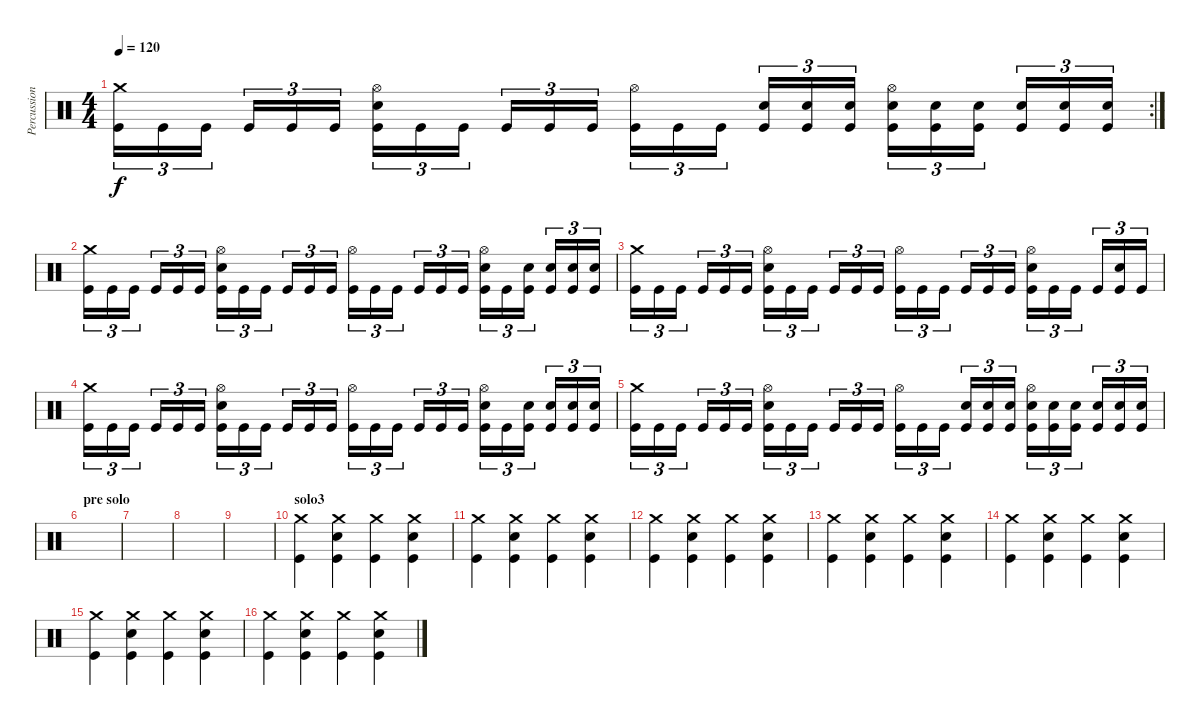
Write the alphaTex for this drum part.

\track ("Percussion" "Percussion") {instrument percussion}
\staff {score}
\articulation defaults
\rc 2
\ts (4 4)
\tempo 120
\clef neutral
\ks c
("Crash medium (hit)" "Kick (hit)").16{tu (3 2) dy f} "Kick (hit)".16{tu (3 2)} "Kick (hit)".16{tu (3 2)} "Kick (hit)".16{tu (3 2)} "Kick (hit)".16{tu (3 2)} "Kick (hit)".16{tu (3 2)} ("Snare (hit) 2" "Hi-Hat (open)" "Kick (hit)").16{tu (3 2)} "Kick (hit)".16{tu (3 2)} "Kick (hit)".16{tu (3 2)} "Kick (hit)".16{tu (3 2)} "Kick (hit)".16{tu (3 2)} "Kick (hit)".16{tu (3 2)} ("Hi-Hat (open)" "Kick (hit)").16{tu (3 2)} "Kick (hit)".16{tu (3 2)} "Kick (hit)".16{tu (3 2)} ("Snare (hit) 2" "Kick (hit)").16{tu (3 2)} ("Snare (hit) 2" "Kick (hit)").16{tu (3 2)} ("Snare (hit) 2" "Kick (hit)").16{tu (3 2)} ("Snare (hit) 2" "Hi-Hat (open)" "Kick (hit)").16{tu (3 2)} ("Snare (hit) 2" "Kick (hit)").16{tu (3 2)} ("Snare (hit) 2" "Kick (hit)").16{tu (3 2)} ("Snare (hit) 2" "Kick (hit)").16{tu (3 2)} ("Snare (hit) 2" "Kick (hit)").16{tu (3 2)} ("Snare (hit) 2" "Kick (hit)").16{tu (3 2)} |
("Crash medium (hit)" "Kick (hit)").16{tu (3 2)} "Kick (hit)".16{tu (3 2)} "Kick (hit)".16{tu (3 2)} "Kick (hit)".16{tu (3 2)} "Kick (hit)".16{tu (3 2)} "Kick (hit)".16{tu (3 2)} ("Snare (hit) 2" "Hi-Hat (open)" "Kick (hit)").16{tu (3 2)} "Kick (hit)".16{tu (3 2)} "Kick (hit)".16{tu (3 2)} "Kick (hit)".16{tu (3 2)} "Kick (hit)".16{tu (3 2)} "Kick (hit)".16{tu (3 2)} ("Hi-Hat (open)" "Kick (hit)").16{tu (3 2)} "Kick (hit)".16{tu (3 2)} "Kick (hit)".16{tu (3 2)} "Kick (hit)".16{tu (3 2)} "Kick (hit)".16{tu (3 2)} "Kick (hit)".16{tu (3 2)} ("Snare (hit) 2" "Hi-Hat (open)" "Kick (hit)").16{tu (3 2)} "Kick (hit)".16{tu (3 2)} ("Snare (hit) 2" "Kick (hit)").16{tu (3 2)} ("Snare (hit) 2" "Kick (hit)").16{tu (3 2)} ("Snare (hit) 2" "Kick (hit)").16{tu (3 2)} ("Snare (hit) 2" "Kick (hit)").16{tu (3 2)} |
("Crash medium (hit)" "Kick (hit)").16{tu (3 2)} "Kick (hit)".16{tu (3 2)} "Kick (hit)".16{tu (3 2)} "Kick (hit)".16{tu (3 2)} "Kick (hit)".16{tu (3 2)} "Kick (hit)".16{tu (3 2)} ("Snare (hit) 2" "Hi-Hat (open)" "Kick (hit)").16{tu (3 2)} "Kick (hit)".16{tu (3 2)} "Kick (hit)".16{tu (3 2)} "Kick (hit)".16{tu (3 2)} "Kick (hit)".16{tu (3 2)} "Kick (hit)".16{tu (3 2)} ("Hi-Hat (open)" "Kick (hit)").16{tu (3 2)} "Kick (hit)".16{tu (3 2)} "Kick (hit)".16{tu (3 2)} "Kick (hit)".16{tu (3 2)} "Kick (hit)".16{tu (3 2)} "Kick (hit)".16{tu (3 2)} ("Snare (hit) 2" "Hi-Hat (open)" "Kick (hit)").16{tu (3 2)} "Kick (hit)".16{tu (3 2)} "Kick (hit)".16{tu (3 2)} "Kick (hit)".16{tu (3 2)} ("Snare (hit) 2" "Kick (hit)").16{tu (3 2)} "Kick (hit)".16{tu (3 2)} |
("Crash medium (hit)" "Kick (hit)").16{tu (3 2)} "Kick (hit)".16{tu (3 2)} "Kick (hit)".16{tu (3 2)} "Kick (hit)".16{tu (3 2)} "Kick (hit)".16{tu (3 2)} "Kick (hit)".16{tu (3 2)} ("Snare (hit) 2" "Hi-Hat (open)" "Kick (hit)").16{tu (3 2)} "Kick (hit)".16{tu (3 2)} "Kick (hit)".16{tu (3 2)} "Kick (hit)".16{tu (3 2)} "Kick (hit)".16{tu (3 2)} "Kick (hit)".16{tu (3 2)} ("Hi-Hat (open)" "Kick (hit)").16{tu (3 2)} "Kick (hit)".16{tu (3 2)} "Kick (hit)".16{tu (3 2)} "Kick (hit)".16{tu (3 2)} "Kick (hit)".16{tu (3 2)} "Kick (hit)".16{tu (3 2)} ("Snare (hit) 2" "Hi-Hat (open)" "Kick (hit)").16{tu (3 2)} "Kick (hit)".16{tu (3 2)} ("Snare (hit) 2" "Kick (hit)").16{tu (3 2)} ("Snare (hit) 2" "Kick (hit)").16{tu (3 2)} ("Snare (hit) 2" "Kick (hit)").16{tu (3 2)} ("Snare (hit) 2" "Kick (hit)").16{tu (3 2)} |
("Crash medium (hit)" "Kick (hit)").16{tu (3 2)} "Kick (hit)".16{tu (3 2)} "Kick (hit)".16{tu (3 2)} "Kick (hit)".16{tu (3 2)} "Kick (hit)".16{tu (3 2)} "Kick (hit)".16{tu (3 2)} ("Snare (hit) 2" "Hi-Hat (open)" "Kick (hit)").16{tu (3 2)} "Kick (hit)".16{tu (3 2)} "Kick (hit)".16{tu (3 2)} "Kick (hit)".16{tu (3 2)} "Kick (hit)".16{tu (3 2)} "Kick (hit)".16{tu (3 2)} ("Hi-Hat (open)" "Kick (hit)").16{tu (3 2)} "Kick (hit)".16{tu (3 2)} "Kick (hit)".16{tu (3 2)} ("Snare (hit) 2" "Kick (hit)").16{tu (3 2)} ("Snare (hit) 2" "Kick (hit)").16{tu (3 2)} ("Snare (hit) 2" "Kick (hit)").16{tu (3 2)} ("Snare (hit) 2" "Hi-Hat (open)" "Kick (hit)").16{tu (3 2)} ("Snare (hit) 2" "Kick (hit)").16{tu (3 2)} ("Snare (hit) 2" "Kick (hit)").16{tu (3 2)} ("Snare (hit) 2" "Kick (hit)").16{tu (3 2)} ("Snare (hit) 2" "Kick (hit)").16{tu (3 2)} ("Snare (hit) 2" "Kick (hit)").16{tu (3 2)} |
\section ("" "pre solo")
|
|
|
|
\section ("" "solo3")
("Crash medium (hit)" "Kick (hit)").4 ("Crash medium (hit)" "Snare (hit) 2" "Kick (hit)").4 ("Crash medium (hit)" "Kick (hit)").4 ("Crash medium (hit)" "Snare (hit) 2" "Kick (hit)").4 |
("Crash medium (hit)" "Kick (hit)").4 ("Crash medium (hit)" "Snare (hit) 2" "Kick (hit)").4 ("Crash medium (hit)" "Kick (hit)").4 ("Crash medium (hit)" "Snare (hit) 2" "Kick (hit)").4 |
("Crash medium (hit)" "Kick (hit)").4 ("Crash medium (hit)" "Snare (hit) 2" "Kick (hit)").4 ("Crash medium (hit)" "Kick (hit)").4 ("Crash medium (hit)" "Snare (hit) 2" "Kick (hit)").4 |
("Crash medium (hit)" "Kick (hit)").4 ("Crash medium (hit)" "Snare (hit) 2" "Kick (hit)").4 ("Crash medium (hit)" "Kick (hit)").4 ("Crash medium (hit)" "Snare (hit) 2" "Kick (hit)").4 |
("Crash medium (hit)" "Kick (hit)").4 ("Crash medium (hit)" "Snare (hit) 2" "Kick (hit)").4 ("Crash medium (hit)" "Kick (hit)").4 ("Crash medium (hit)" "Snare (hit) 2" "Kick (hit)").4 |
("Crash medium (hit)" "Kick (hit)").4 ("Crash medium (hit)" "Snare (hit) 2" "Kick (hit)").4 ("Crash medium (hit)" "Kick (hit)").4 ("Crash medium (hit)" "Snare (hit) 2" "Kick (hit)").4 |
("Crash medium (hit)" "Kick (hit)").4 ("Crash medium (hit)" "Snare (hit) 2" "Kick (hit)").4 ("Crash medium (hit)" "Kick (hit)").4 ("Crash medium (hit)" "Snare (hit) 2" "Kick (hit)").4
